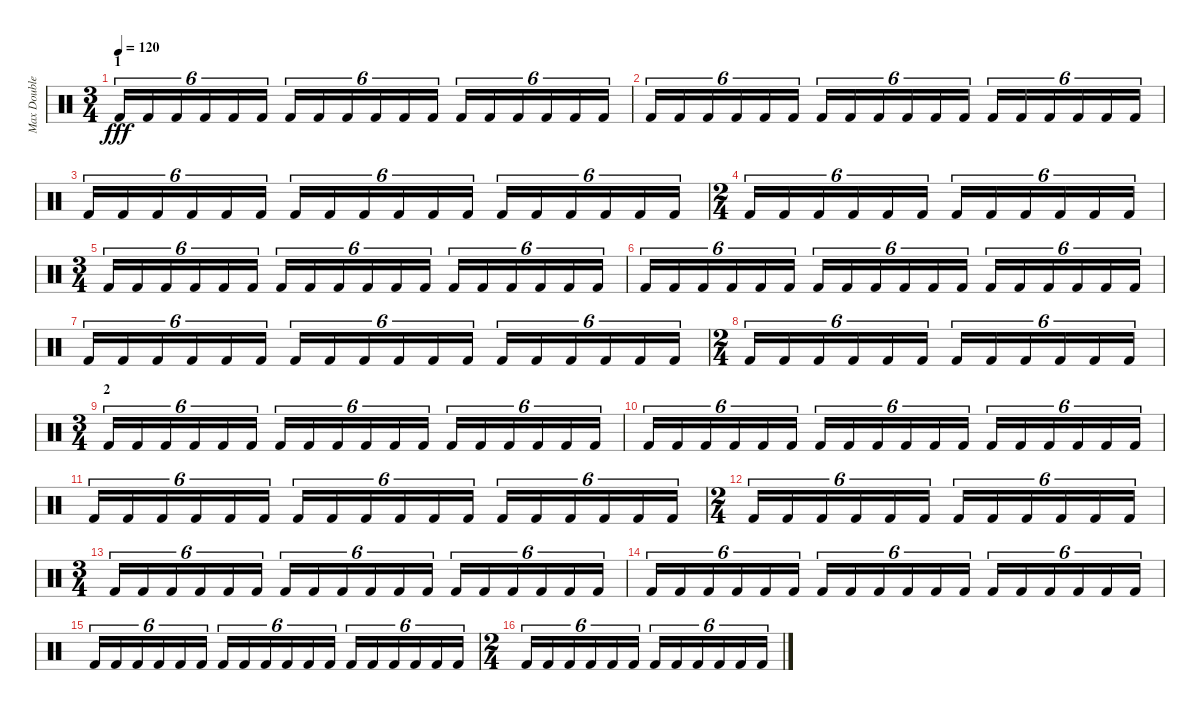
\track ("Max Double Pedal" "Max Double") {instrument percussion}
\staff {score}
\articulation defaults
\ts (3 4)
\section ("" "1")
\tempo 120
\clef neutral
\ks c "Kick (hit) 2".16{tu (6 4) dy fff} "Kick (hit) 2".16{tu (6 4)} "Kick (hit) 2".16{tu (6 4)} "Kick (hit) 2".16{tu (6 4)} "Kick (hit) 2".16{tu (6 4)} "Kick (hit) 2".16{tu (6 4)} "Kick (hit) 2".16{tu (6 4)} "Kick (hit) 2".16{tu (6 4)} "Kick (hit) 2".16{tu (6 4)} "Kick (hit) 2".16{tu (6 4)} "Kick (hit) 2".16{tu (6 4)} "Kick (hit) 2".16{tu (6 4)} "Kick (hit) 2".16{tu (6 4)} "Kick (hit) 2".16{tu (6 4)} "Kick (hit) 2".16{tu (6 4)} "Kick (hit) 2".16{tu (6 4)} "Kick (hit) 2".16{tu (6 4)} "Kick (hit) 2".16{tu (6 4)}
|
"Kick (hit) 2".16{tu (6 4)} "Kick (hit) 2".16{tu (6 4)} "Kick (hit) 2".16{tu (6 4)} "Kick (hit) 2".16{tu (6 4)} "Kick (hit) 2".16{tu (6 4)} "Kick (hit) 2".16{tu (6 4)} "Kick (hit) 2".16{tu (6 4)} "Kick (hit) 2".16{tu (6 4)} "Kick (hit) 2".16{tu (6 4)} "Kick (hit) 2".16{tu (6 4)} "Kick (hit) 2".16{tu (6 4)} "Kick (hit) 2".16{tu (6 4)} "Kick (hit) 2".16{tu (6 4)} "Kick (hit) 2".16{tu (6 4)} "Kick (hit) 2".16{tu (6 4)} "Kick (hit) 2".16{tu (6 4)} "Kick (hit) 2".16{tu (6 4)} "Kick (hit) 2".16{tu (6 4)} |
"Kick (hit) 2".16{tu (6 4)} "Kick (hit) 2".16{tu (6 4)} "Kick (hit) 2".16{tu (6 4)} "Kick (hit) 2".16{tu (6 4)} "Kick (hit) 2".16{tu (6 4)} "Kick (hit) 2".16{tu (6 4)} "Kick (hit) 2".16{tu (6 4)} "Kick (hit) 2".16{tu (6 4)} "Kick (hit) 2".16{tu (6 4)} "Kick (hit) 2".16{tu (6 4)} "Kick (hit) 2".16{tu (6 4)} "Kick (hit) 2".16{tu (6 4)} "Kick (hit) 2".16{tu (6 4)} "Kick (hit) 2".16{tu (6 4)} "Kick (hit) 2".16{tu (6 4)} "Kick (hit) 2".16{tu (6 4)} "Kick (hit) 2".16{tu (6 4)} "Kick (hit) 2".16{tu (6 4)} |
\ts (2 4)
"Kick (hit) 2".16{tu (6 4)} "Kick (hit) 2".16{tu (6 4)} "Kick (hit) 2".16{tu (6 4)} "Kick (hit) 2".16{tu (6 4)} "Kick (hit) 2".16{tu (6 4)} "Kick (hit) 2".16{tu (6 4)} "Kick (hit) 2".16{tu (6 4)} "Kick (hit) 2".16{tu (6 4)} "Kick (hit) 2".16{tu (6 4)} "Kick (hit) 2".16{tu (6 4)} "Kick (hit) 2".16{tu (6 4)} "Kick (hit) 2".16{tu (6 4)} |
\ts (3 4)
"Kick (hit) 2".16{tu (6 4)} "Kick (hit) 2".16{tu (6 4)} "Kick (hit) 2".16{tu (6 4)} "Kick (hit) 2".16{tu (6 4)} "Kick (hit) 2".16{tu (6 4)} "Kick (hit) 2".16{tu (6 4)} "Kick (hit) 2".16{tu (6 4)} "Kick (hit) 2".16{tu (6 4)} "Kick (hit) 2".16{tu (6 4)} "Kick (hit) 2".16{tu (6 4)} "Kick (hit) 2".16{tu (6 4)} "Kick (hit) 2".16{tu (6 4)} "Kick (hit) 2".16{tu (6 4)} "Kick (hit) 2".16{tu (6 4)} "Kick (hit) 2".16{tu (6 4)} "Kick (hit) 2".16{tu (6 4)} "Kick (hit) 2".16{tu (6 4)} "Kick (hit) 2".16{tu (6 4)} |
"Kick (hit) 2".16{tu (6 4)} "Kick (hit) 2".16{tu (6 4)} "Kick (hit) 2".16{tu (6 4)} "Kick (hit) 2".16{tu (6 4)} "Kick (hit) 2".16{tu (6 4)} "Kick (hit) 2".16{tu (6 4)} "Kick (hit) 2".16{tu (6 4)} "Kick (hit) 2".16{tu (6 4)} "Kick (hit) 2".16{tu (6 4)} "Kick (hit) 2".16{tu (6 4)} "Kick (hit) 2".16{tu (6 4)} "Kick (hit) 2".16{tu (6 4)} "Kick (hit) 2".16{tu (6 4)} "Kick (hit) 2".16{tu (6 4)} "Kick (hit) 2".16{tu (6 4)} "Kick (hit) 2".16{tu (6 4)} "Kick (hit) 2".16{tu (6 4)} "Kick (hit) 2".16{tu (6 4)} |
"Kick (hit) 2".16{tu (6 4)} "Kick (hit) 2".16{tu (6 4)} "Kick (hit) 2".16{tu (6 4)} "Kick (hit) 2".16{tu (6 4)} "Kick (hit) 2".16{tu (6 4)} "Kick (hit) 2".16{tu (6 4)} "Kick (hit) 2".16{tu (6 4)} "Kick (hit) 2".16{tu (6 4)} "Kick (hit) 2".16{tu (6 4)} "Kick (hit) 2".16{tu (6 4)} "Kick (hit) 2".16{tu (6 4)} "Kick (hit) 2".16{tu (6 4)} "Kick (hit) 2".16{tu (6 4)} "Kick (hit) 2".16{tu (6 4)} "Kick (hit) 2".16{tu (6 4)} "Kick (hit) 2".16{tu (6 4)} "Kick (hit) 2".16{tu (6 4)} "Kick (hit) 2".16{tu (6 4)} |
\ts (2 4)
"Kick (hit) 2".16{tu (6 4)} "Kick (hit) 2".16{tu (6 4)} "Kick (hit) 2".16{tu (6 4)} "Kick (hit) 2".16{tu (6 4)} "Kick (hit) 2".16{tu (6 4)} "Kick (hit) 2".16{tu (6 4)} "Kick (hit) 2".16{tu (6 4)} "Kick (hit) 2".16{tu (6 4)} "Kick (hit) 2".16{tu (6 4)} "Kick (hit) 2".16{tu (6 4)} "Kick (hit) 2".16{tu (6 4)} "Kick (hit) 2".16{tu (6 4)} |
\ts (3 4)
\section ("" "2")
"Kick (hit) 2".16{tu (6 4)} "Kick (hit) 2".16{tu (6 4)} "Kick (hit) 2".16{tu (6 4)} "Kick (hit) 2".16{tu (6 4)} "Kick (hit) 2".16{tu (6 4)} "Kick (hit) 2".16{tu (6 4)} "Kick (hit) 2".16{tu (6 4)} "Kick (hit) 2".16{tu (6 4)} "Kick (hit) 2".16{tu (6 4)} "Kick (hit) 2".16{tu (6 4)} "Kick (hit) 2".16{tu (6 4)} "Kick (hit) 2".16{tu (6 4)} "Kick (hit) 2".16{tu (6 4)} "Kick (hit) 2".16{tu (6 4)} "Kick (hit) 2".16{tu (6 4)} "Kick (hit) 2".16{tu (6 4)} "Kick (hit) 2".16{tu (6 4)} "Kick (hit) 2".16{tu (6 4)} |
"Kick (hit) 2".16{tu (6 4)} "Kick (hit) 2".16{tu (6 4)} "Kick (hit) 2".16{tu (6 4)} "Kick (hit) 2".16{tu (6 4)} "Kick (hit) 2".16{tu (6 4)} "Kick (hit) 2".16{tu (6 4)} "Kick (hit) 2".16{tu (6 4)} "Kick (hit) 2".16{tu (6 4)} "Kick (hit) 2".16{tu (6 4)} "Kick (hit) 2".16{tu (6 4)} "Kick (hit) 2".16{tu (6 4)} "Kick (hit) 2".16{tu (6 4)} "Kick (hit) 2".16{tu (6 4)} "Kick (hit) 2".16{tu (6 4)} "Kick (hit) 2".16{tu (6 4)} "Kick (hit) 2".16{tu (6 4)} "Kick (hit) 2".16{tu (6 4)} "Kick (hit) 2".16{tu (6 4)} |
"Kick (hit) 2".16{tu (6 4)} "Kick (hit) 2".16{tu (6 4)} "Kick (hit) 2".16{tu (6 4)} "Kick (hit) 2".16{tu (6 4)} "Kick (hit) 2".16{tu (6 4)} "Kick (hit) 2".16{tu (6 4)} "Kick (hit) 2".16{tu (6 4)} "Kick (hit) 2".16{tu (6 4)} "Kick (hit) 2".16{tu (6 4)} "Kick (hit) 2".16{tu (6 4)} "Kick (hit) 2".16{tu (6 4)} "Kick (hit) 2".16{tu (6 4)} "Kick (hit) 2".16{tu (6 4)} "Kick (hit) 2".16{tu (6 4)} "Kick (hit) 2".16{tu (6 4)} "Kick (hit) 2".16{tu (6 4)} "Kick (hit) 2".16{tu (6 4)} "Kick (hit) 2".16{tu (6 4)} |
\ts (2 4)
"Kick (hit) 2".16{tu (6 4)} "Kick (hit) 2".16{tu (6 4)} "Kick (hit) 2".16{tu (6 4)} "Kick (hit) 2".16{tu (6 4)} "Kick (hit) 2".16{tu (6 4)} "Kick (hit) 2".16{tu (6 4)} "Kick (hit) 2".16{tu (6 4)} "Kick (hit) 2".16{tu (6 4)} "Kick (hit) 2".16{tu (6 4)} "Kick (hit) 2".16{tu (6 4)} "Kick (hit) 2".16{tu (6 4)} "Kick (hit) 2".16{tu (6 4)} |
\ts (3 4)
"Kick (hit) 2".16{tu (6 4)} "Kick (hit) 2".16{tu (6 4)} "Kick (hit) 2".16{tu (6 4)} "Kick (hit) 2".16{tu (6 4)} "Kick (hit) 2".16{tu (6 4)} "Kick (hit) 2".16{tu (6 4)} "Kick (hit) 2".16{tu (6 4)} "Kick (hit) 2".16{tu (6 4)} "Kick (hit) 2".16{tu (6 4)} "Kick (hit) 2".16{tu (6 4)} "Kick (hit) 2".16{tu (6 4)} "Kick (hit) 2".16{tu (6 4)} "Kick (hit) 2".16{tu (6 4)} "Kick (hit) 2".16{tu (6 4)} "Kick (hit) 2".16{tu (6 4)} "Kick (hit) 2".16{tu (6 4)} "Kick (hit) 2".16{tu (6 4)} "Kick (hit) 2".16{tu (6 4)} |
"Kick (hit) 2".16{tu (6 4)} "Kick (hit) 2".16{tu (6 4)} "Kick (hit) 2".16{tu (6 4)} "Kick (hit) 2".16{tu (6 4)} "Kick (hit) 2".16{tu (6 4)} "Kick (hit) 2".16{tu (6 4)} "Kick (hit) 2".16{tu (6 4)} "Kick (hit) 2".16{tu (6 4)} "Kick (hit) 2".16{tu (6 4)} "Kick (hit) 2".16{tu (6 4)} "Kick (hit) 2".16{tu (6 4)} "Kick (hit) 2".16{tu (6 4)} "Kick (hit) 2".16{tu (6 4)} "Kick (hit) 2".16{tu (6 4)} "Kick (hit) 2".16{tu (6 4)} "Kick (hit) 2".16{tu (6 4)} "Kick (hit) 2".16{tu (6 4)} "Kick (hit) 2".16{tu (6 4)} |
"Kick (hit) 2".16{tu (6 4)} "Kick (hit) 2".16{tu (6 4)} "Kick (hit) 2".16{tu (6 4)} "Kick (hit) 2".16{tu (6 4)} "Kick (hit) 2".16{tu (6 4)} "Kick (hit) 2".16{tu (6 4)} "Kick (hit) 2".16{tu (6 4)} "Kick (hit) 2".16{tu (6 4)} "Kick (hit) 2".16{tu (6 4)} "Kick (hit) 2".16{tu (6 4)} "Kick (hit) 2".16{tu (6 4)} "Kick (hit) 2".16{tu (6 4)} "Kick (hit) 2".16{tu (6 4)} "Kick (hit) 2".16{tu (6 4)} "Kick (hit) 2".16{tu (6 4)} "Kick (hit) 2".16{tu (6 4)} "Kick (hit) 2".16{tu (6 4)} "Kick (hit) 2".16{tu (6 4)} |
\ts (2 4)
"Kick (hit) 2".16{tu (6 4)} "Kick (hit) 2".16{tu (6 4)} "Kick (hit) 2".16{tu (6 4)} "Kick (hit) 2".16{tu (6 4)} "Kick (hit) 2".16{tu (6 4)} "Kick (hit) 2".16{tu (6 4)} "Kick (hit) 2".16{tu (6 4)} "Kick (hit) 2".16{tu (6 4)} "Kick (hit) 2".16{tu (6 4)} "Kick (hit) 2".16{tu (6 4)} "Kick (hit) 2".16{tu (6 4)} "Kick (hit) 2".16{tu (6 4)}
